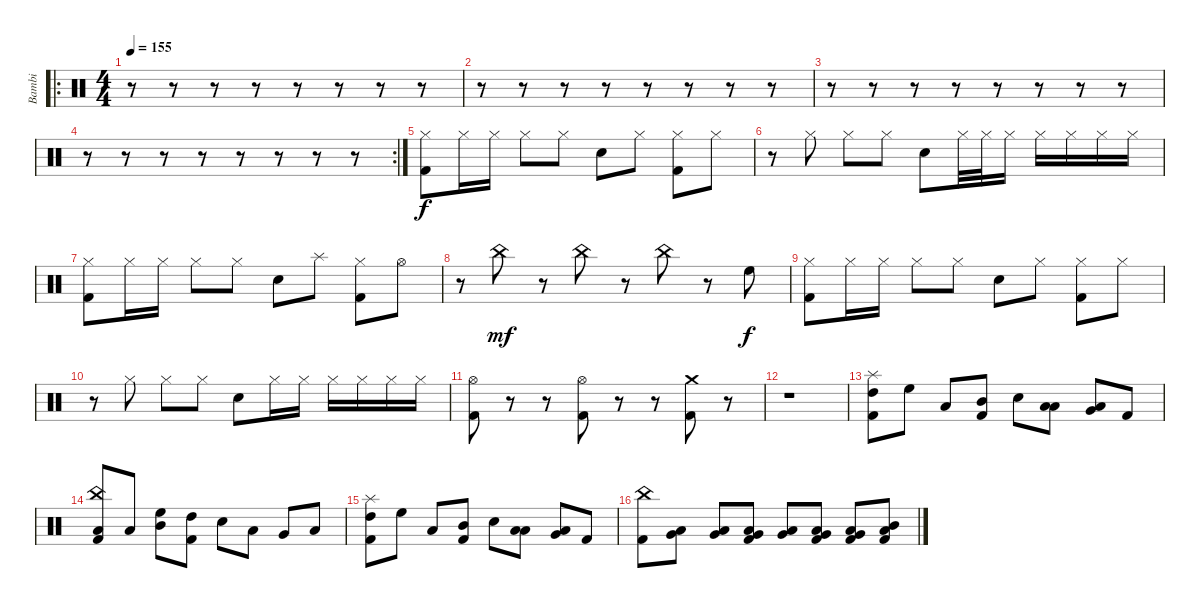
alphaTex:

\track ("Bambi" "Bambi") {instrument percussion}
\staff {score}
\articulation defaults
\ro
\ts (4 4)
\tempo 155
\clef neutral
\ks c
r.8{dy f} r.8 r.8 r.8 r.8 r.8 r.8 r.8 |
r.8 r.8 r.8 r.8 r.8 r.8 r.8 r.8 |
r.8 r.8 r.8 r.8 r.8 r.8 r.8 r.8 |
\rc 2
r.8 r.8 r.8 r.8 r.8 r.8 r.8 r.8 |
("Hi-Hat (closed)" "Kick (hit) 2").8 "Hi-Hat (closed)".16 "Hi-Hat (closed)".16 "Hi-Hat (closed)".8 "Hi-Hat (closed)".8 "Electric Snare (hit)".8 "Hi-Hat (closed)".8 ("Hi-Hat (closed)" "Kick (hit) 2").8 "Hi-Hat (closed)".8 |
r.8 "Hi-Hat (closed)".8 "Hi-Hat (closed)".8 "Hi-Hat (closed)".8 "Electric Snare (hit)".8 "Hi-Hat (closed)".32 "Hi-Hat (closed)".32 "Hi-Hat (closed)".16 "Hi-Hat (closed)".16 "Hi-Hat (closed)".16 "Hi-Hat (closed)".16 "Hi-Hat (closed)".16 |
("Hi-Hat (closed)" "Kick (hit) 2").8 "Hi-Hat (closed)".16 "Hi-Hat (closed)".16 "Hi-Hat (closed)".8 "Hi-Hat (closed)".8 "Electric Snare (hit)".8 "Splash (hit)".8 ("Hi-Hat (closed)" "Kick (hit) 2").8 "Hi-Hat (open)".8 |
r.8 "China (hit)".8{dy mf} r.8 "China (hit)".8 r.8 "China (hit)".8 r.8 "High Floor Tom (hit)".8{dy f} |
("Hi-Hat (closed)" "Kick (hit) 2").8 "Hi-Hat (closed)".16 "Hi-Hat (closed)".16 "Hi-Hat (closed)".8 "Hi-Hat (closed)".8 "Electric Snare (hit)".8 "Hi-Hat (closed)".8 ("Hi-Hat (closed)" "Kick (hit) 2").8 "Hi-Hat (closed)".8 |
r.8 "Hi-Hat (closed)".8 "Hi-Hat (closed)".8 "Hi-Hat (closed)".8 "Electric Snare (hit)".8 "Hi-Hat (closed)".16 "Hi-Hat (closed)".16 "Hi-Hat (closed)".16 "Hi-Hat (closed)".16 "Hi-Hat (closed)".16 "Hi-Hat (closed)".16 |
("Hi-Hat (open)" "Kick (hit) 2").8 r.8 r.8 ("Hi-Hat (open)" "Kick (hit) 2").8 r.8 r.8 ("Crash medium (hit)" "Kick (hit) 2").8 r.8 |
r.1 |
("High Tom (hit)" "Kick (hit) 2" "Splash (hit)").8 "High Floor Tom (hit)".8 "Low Tom (hit)".8 ("Mid Tom (hit)" "Kick (hit) 2").8 "Electric Snare (hit)".8 ("Low Floor Tom (hit)" "Low Tom (hit)").8 ("Low Floor Tom (hit)" "Very Low Tom (hit)").8 "Kick (hit) 2".8 |
("Low Tom (hit)" "China (hit)" "Kick (hit) 2").8 "Low Floor Tom (hit)".8 ("High Floor Tom (hit)" "Mid Tom (hit)").8 ("Kick (hit) 2" "High Tom (hit)").8 "Electric Snare (hit)".8 "Low Floor Tom (hit)".8 "Very Low Tom (hit)".8 "Low Tom (hit)".8 |
("High Tom (hit)" "Kick (hit) 2" "Splash (hit)").8 "High Floor Tom (hit)".8 "Low Tom (hit)".8 ("Mid Tom (hit)" "Kick (hit) 2").8 "Electric Snare (hit)".8 ("Low Floor Tom (hit)" "Low Tom (hit)").8 ("Low Floor Tom (hit)" "Very Low Tom (hit)").8 "Kick (hit) 2".8 |
("Kick (hit) 2" "China (hit)").8 ("Low Floor Tom (hit)" "Very Low Tom (hit)").8 ("Very Low Tom (hit)" "Low Floor Tom (hit)").8 ("Kick (hit) 2" "Very Low Tom (hit)" "Low Floor Tom (hit)").8 ("Very Low Tom (hit)" "Low Floor Tom (hit)").8 ("Very Low Tom (hit)" "Kick (hit) 2" "Low Tom (hit)").8 ("Very Low Tom (hit)" "Kick (hit) 2" "Low Tom (hit)").8 ("Mid Tom (hit)" "Kick (hit) 2" "Low Tom (hit)").8
